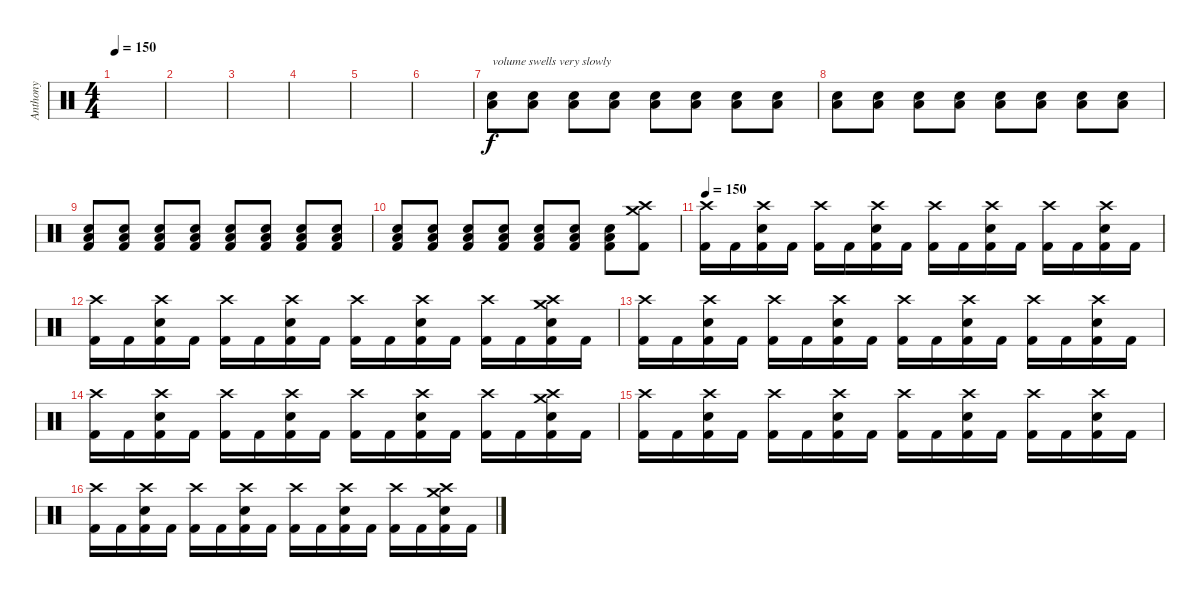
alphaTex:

\track ("Anthony" "Anthony") {instrument percussion}
\staff {score}
\articulation defaults
\ts (4 4)
\tempo 150
\tempo 120
\tempo 150
\clef neutral
\ks c
|
|
|
|
|
|
("Snare (hit) 2" "Low Tom (hit)").8{txt "volume swells very slowly" volume 2} ("Snare (hit) 2" "Low Tom (hit)").8 ("Snare (hit) 2" "Low Tom (hit)").8 ("Snare (hit) 2" "Low Tom (hit)").8 ("Snare (hit) 2" "Low Tom (hit)").8{volume 5} ("Snare (hit) 2" "Low Tom (hit)").8 ("Snare (hit) 2" "Low Tom (hit)").8 ("Snare (hit) 2" "Low Tom (hit)").8 |
("Snare (hit) 2" "Low Tom (hit)").8{volume 6} ("Snare (hit) 2" "Low Tom (hit)").8 ("Snare (hit) 2" "Low Tom (hit)").8 ("Snare (hit) 2" "Low Tom (hit)").8 ("Snare (hit) 2" "Low Tom (hit)").8{volume 7} ("Snare (hit) 2" "Low Tom (hit)").8 ("Snare (hit) 2" "Low Tom (hit)").8 ("Snare (hit) 2" "Low Tom (hit)").8 |
("Snare (hit) 2" "Low Tom (hit)" "Kick (hit) 2").8{volume 9} ("Snare (hit) 2" "Low Tom (hit)" "Kick (hit) 2").8 ("Snare (hit) 2" "Low Tom (hit)" "Kick (hit) 2").8 ("Snare (hit) 2" "Low Tom (hit)" "Kick (hit) 2").8 ("Snare (hit) 2" "Low Tom (hit)" "Kick (hit) 2").8{volume 10} ("Snare (hit) 2" "Low Tom (hit)" "Kick (hit) 2").8 ("Snare (hit) 2" "Low Tom (hit)" "Kick (hit) 2").8 ("Snare (hit) 2" "Low Tom (hit)" "Kick (hit) 2").8 |
("Snare (hit) 2" "Low Tom (hit)" "Kick (hit) 2").8{volume 11} ("Snare (hit) 2" "Low Tom (hit)" "Kick (hit) 2").8 ("Snare (hit) 2" "Low Tom (hit)" "Kick (hit) 2").8 ("Snare (hit) 2" "Low Tom (hit)" "Kick (hit) 2").8 ("Snare (hit) 2" "Low Tom (hit)" "Kick (hit) 2").8{volume 13} ("Snare (hit) 2" "Low Tom (hit)" "Kick (hit) 2").8 ("Snare (hit) 2" "Low Tom (hit)" "Kick (hit) 2").8 ("Crash medium (hit)" "Crash high (hit)" "Kick (hit) 2").8{volume 16} |
\tempo 150
("Crash high (hit)" "Kick (hit) 2").16 "Kick (hit) 2".16 ("Crash high (hit)" "Snare (hit) 2" "Kick (hit) 2").16 "Kick (hit) 2".16 ("Crash high (hit)" "Kick (hit) 2").16 "Kick (hit) 2".16 ("Crash high (hit)" "Snare (hit) 2" "Kick (hit) 2").16 "Kick (hit) 2".16 ("Crash high (hit)" "Kick (hit) 2").16 "Kick (hit) 2".16 ("Crash high (hit)" "Snare (hit) 2" "Kick (hit) 2").16 "Kick (hit) 2".16 ("Crash high (hit)" "Kick (hit) 2").16 "Kick (hit) 2".16 ("Crash high (hit)" "Snare (hit) 2" "Kick (hit) 2").16 "Kick (hit) 2".16 |
("Crash high (hit)" "Kick (hit) 2").16 "Kick (hit) 2".16 ("Crash high (hit)" "Snare (hit) 2" "Kick (hit) 2").16 "Kick (hit) 2".16 ("Crash high (hit)" "Kick (hit) 2").16 "Kick (hit) 2".16 ("Crash high (hit)" "Snare (hit) 2" "Kick (hit) 2").16 "Kick (hit) 2".16 ("Crash high (hit)" "Kick (hit) 2").16 "Kick (hit) 2".16 ("Crash high (hit)" "Snare (hit) 2" "Kick (hit) 2").16 "Kick (hit) 2".16 ("Crash high (hit)" "Kick (hit) 2").16 "Kick (hit) 2".16 ("Crash high (hit)" "Crash medium (hit)" "Snare (hit) 2" "Kick (hit) 2").16 "Kick (hit) 2".16 |
("Crash high (hit)" "Kick (hit) 2").16 "Kick (hit) 2".16 ("Crash high (hit)" "Snare (hit) 2" "Kick (hit) 2").16 "Kick (hit) 2".16 ("Crash high (hit)" "Kick (hit) 2").16 "Kick (hit) 2".16 ("Crash high (hit)" "Snare (hit) 2" "Kick (hit) 2").16 "Kick (hit) 2".16 ("Crash high (hit)" "Kick (hit) 2").16 "Kick (hit) 2".16 ("Crash high (hit)" "Snare (hit) 2" "Kick (hit) 2").16 "Kick (hit) 2".16 ("Crash high (hit)" "Kick (hit) 2").16 "Kick (hit) 2".16 ("Crash high (hit)" "Snare (hit) 2" "Kick (hit) 2").16 "Kick (hit) 2".16 |
("Crash high (hit)" "Kick (hit) 2").16 "Kick (hit) 2".16 ("Crash high (hit)" "Snare (hit) 2" "Kick (hit) 2").16 "Kick (hit) 2".16 ("Crash high (hit)" "Kick (hit) 2").16 "Kick (hit) 2".16 ("Crash high (hit)" "Snare (hit) 2" "Kick (hit) 2").16 "Kick (hit) 2".16 ("Crash high (hit)" "Kick (hit) 2").16 "Kick (hit) 2".16 ("Crash high (hit)" "Snare (hit) 2" "Kick (hit) 2").16 "Kick (hit) 2".16 ("Crash high (hit)" "Kick (hit) 2").16 "Kick (hit) 2".16 ("Crash high (hit)" "Crash medium (hit)" "Snare (hit) 2" "Kick (hit) 2").16 "Kick (hit) 2".16 |
("Crash high (hit)" "Kick (hit) 2").16 "Kick (hit) 2".16 ("Crash high (hit)" "Snare (hit) 2" "Kick (hit) 2").16 "Kick (hit) 2".16 ("Crash high (hit)" "Kick (hit) 2").16 "Kick (hit) 2".16 ("Crash high (hit)" "Snare (hit) 2" "Kick (hit) 2").16 "Kick (hit) 2".16 ("Crash high (hit)" "Kick (hit) 2").16 "Kick (hit) 2".16 ("Crash high (hit)" "Snare (hit) 2" "Kick (hit) 2").16 "Kick (hit) 2".16 ("Crash high (hit)" "Kick (hit) 2").16 "Kick (hit) 2".16 ("Crash high (hit)" "Snare (hit) 2" "Kick (hit) 2").16 "Kick (hit) 2".16 |
("Crash high (hit)" "Kick (hit) 2").16 "Kick (hit) 2".16 ("Crash high (hit)" "Snare (hit) 2" "Kick (hit) 2").16 "Kick (hit) 2".16 ("Crash high (hit)" "Kick (hit) 2").16 "Kick (hit) 2".16 ("Crash high (hit)" "Snare (hit) 2" "Kick (hit) 2").16 "Kick (hit) 2".16 ("Crash high (hit)" "Kick (hit) 2").16 "Kick (hit) 2".16 ("Crash high (hit)" "Snare (hit) 2" "Kick (hit) 2").16 "Kick (hit) 2".16 ("Crash high (hit)" "Kick (hit) 2").16 "Kick (hit) 2".16 ("Crash high (hit)" "Crash medium (hit)" "Snare (hit) 2" "Kick (hit) 2").16 "Kick (hit) 2".16
